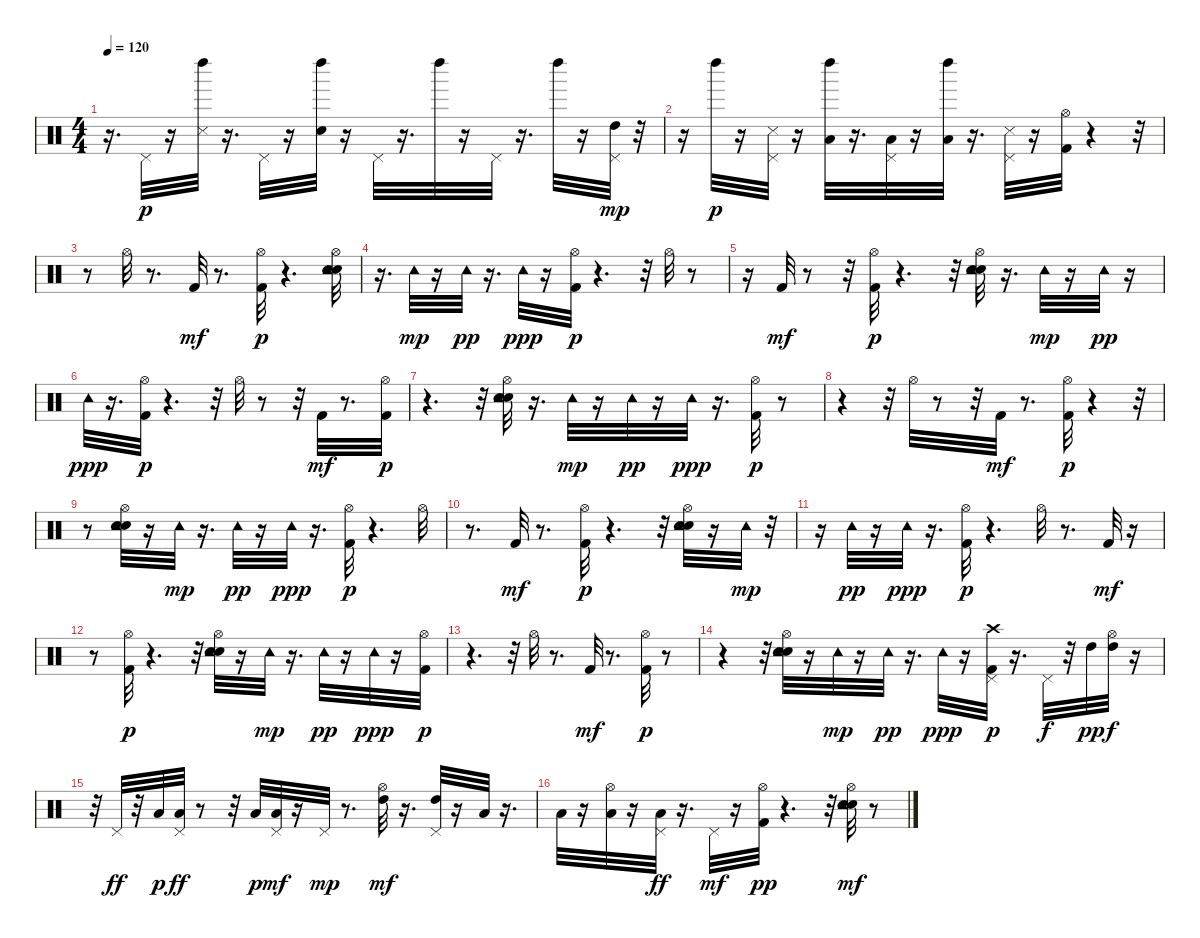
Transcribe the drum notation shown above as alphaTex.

\track "" {instrument percussion}
\staff {score}
\articulation defaults
\ts (4 4)
\tempo 120
\clef neutral
\ks c
r.16{d dy p} "Pedal Hi-Hat (hit)".32 r.16 ("Snare (side stick) 3" "Left Maraca (hit)").32 r.16{d} "Pedal Hi-Hat (hit)".32 r.16 ("Snare (hit) 2" "Left Maraca (hit)").32 r.16 "Pedal Hi-Hat (hit)".32 r.16{d} "Left Maraca (hit)".32 r.16 "Pedal Hi-Hat (hit)".32 r.16{d} "Left Maraca (hit)".32 r.16 ("Pedal Hi-Hat (hit)" "High Tom (hit)").32{dy mp} r.32 |
r.16 "Left Maraca (hit)".32{dy p} r.16 ("Pedal Hi-Hat (hit)" "Snare (side stick) 3").32 r.16 ("Low Tom (hit)" "Left Maraca (hit)").32 r.16{d} ("Pedal Hi-Hat (hit)" "Low Tom (hit)").32 r.16 ("Low Floor Tom (hit)" "Left Maraca (hit)").32 r.16{d} ("Pedal Hi-Hat (hit)" "Snare (side stick) 3").32 r.16 ("Kick (hit) 2" "Hi-Hat (open)").32 r.4 r.32 |
r.8 "Hi-Hat (open)".32 r.8{d} "Kick (hit) 2".32{dy mf} r.8{d} ("Kick (hit) 2" "Hi-Hat (open)").32{dy p} r.4{d} ("Snare (hit) 2" "Electric Snare (hit)" "Hi-Hat (open)" "Tambourine (hit)").32 |
r.16{d} "Tambourine (hit)".32{dy mp} r.16 "Tambourine (hit)".32{dy pp} r.16{d} "Tambourine (hit)".32{dy ppp} r.16 ("Kick (hit) 2" "Hi-Hat (open)").32{dy p} r.4{d} r.32 "Hi-Hat (open)".32 r.8 |
r.16 "Kick (hit) 2".32{dy mf} r.8 r.32 ("Kick (hit) 2" "Hi-Hat (open)").32{dy p} r.4{d} r.32 ("Snare (hit) 2" "Electric Snare (hit)" "Hi-Hat (open)" "Tambourine (hit)").32 r.16{d} "Tambourine (hit)".32{dy mp} r.16 "Tambourine (hit)".32{dy pp} r.16 |
"Tambourine (hit)".32{dy ppp} r.16{d} ("Kick (hit) 2" "Hi-Hat (open)").32{dy p} r.4{d} r.32 "Hi-Hat (open)".32 r.8 r.32 "Kick (hit) 2".32{dy mf} r.8{d} ("Kick (hit) 2" "Hi-Hat (open)").32{dy p} |
r.4{d} r.32 ("Snare (hit) 2" "Electric Snare (hit)" "Hi-Hat (open)" "Tambourine (hit)").32 r.16{d} "Tambourine (hit)".32{dy mp} r.16 "Tambourine (hit)".32{dy pp} r.16 "Tambourine (hit)".32{dy ppp} r.16{d} ("Kick (hit) 2" "Hi-Hat (open)").32{dy p} r.8 |
r.4 r.32 "Hi-Hat (open)".32 r.8 r.32 "Kick (hit) 2".32{dy mf} r.8{d} ("Kick (hit) 2" "Hi-Hat (open)").32{dy p} r.4 r.32 |
r.8 ("Snare (hit) 2" "Electric Snare (hit)" "Hi-Hat (open)" "Tambourine (hit)").32 r.16 "Tambourine (hit)".32{dy mp} r.16{d} "Tambourine (hit)".32{dy pp} r.16 "Tambourine (hit)".32{dy ppp} r.16{d} ("Kick (hit) 2" "Hi-Hat (open)").32{dy p} r.4{d} "Hi-Hat (open)".32 |
r.8{d} "Kick (hit) 2".32{dy mf} r.8{d} ("Kick (hit) 2" "Hi-Hat (open)").32{dy p} r.4{d} r.32 ("Snare (hit) 2" "Electric Snare (hit)" "Hi-Hat (open)" "Tambourine (hit)").32 r.16 "Tambourine (hit)".32{dy mp} r.32 |
r.16 "Tambourine (hit)".32{dy pp} r.16 "Tambourine (hit)".32{dy ppp} r.16{d} ("Kick (hit) 2" "Hi-Hat (open)").32{dy p} r.4{d} "Hi-Hat (open)".32 r.8{d} "Kick (hit) 2".32{dy mf} r.16 |
r.8 ("Kick (hit) 2" "Hi-Hat (open)").32{dy p} r.4{d} r.32 ("Snare (hit) 2" "Electric Snare (hit)" "Hi-Hat (open)" "Tambourine (hit)").32 r.16 "Tambourine (hit)".32{dy mp} r.16{d} "Tambourine (hit)".32{dy pp} r.16 "Tambourine (hit)".32{dy ppp} r.16 ("Kick (hit) 2" "Hi-Hat (open)").32{dy p} |
r.4{d} r.32 "Hi-Hat (open)".32 r.8{d} "Kick (hit) 2".32{dy mf} r.8{d} ("Kick (hit) 2" "Hi-Hat (open)").32{dy p} r.8 |
r.4 r.32 ("Snare (hit) 2" "Electric Snare (hit)" "Hi-Hat (open)" "Tambourine (hit)").32 r.16 "Tambourine (hit)".32{dy mp} r.16 "Tambourine (hit)".32{dy pp} r.16{d} "Tambourine (hit)".32{dy ppp} r.16 ("Kick (hit) 2" "Pedal Hi-Hat (hit)" "Crash high (hit)").32{dy p} r.16{d} "Pedal Hi-Hat (hit)".32{dy f} r.32 "High Tom (hit)".32{dy pp} ("Hi-Hat (open)" "High Tom (hit)").32{dy f} r.16 |
r.32 "Pedal Hi-Hat (hit)".32{dy ff} r.32 "Low Tom (hit)".32{dy p} ("Pedal Hi-Hat (hit)" "Low Tom (hit)").32{dy ff} r.8 r.32 "Low Floor Tom (hit)".32{dy p} ("Pedal Hi-Hat (hit)" "Low Floor Tom (hit)").32{dy mf} r.16 "Pedal Hi-Hat (hit)".32{dy mp} r.8{d} ("Hi-Hat (open)" "High Tom (hit)").32{dy mf} r.16{d} ("Pedal Hi-Hat (hit)" "High Tom (hit)").32 r.16 "Low Tom (hit)".32 r.16{d} |
"Low Tom (hit)".32 r.16 ("Hi-Hat (open)" "Low Floor Tom (hit)").32 r.16 ("Pedal Hi-Hat (hit)" "Low Floor Tom (hit)").32{dy ff} r.16{d} "Pedal Hi-Hat (hit)".32{dy mf} r.16 ("Kick (hit) 2" "Hi-Hat (open)").32{dy pp} r.4{d} r.32 ("Snare (hit) 2" "Electric Snare (hit)" "Hi-Hat (open)" "Tambourine (hit)").32{dy mf} r.8
